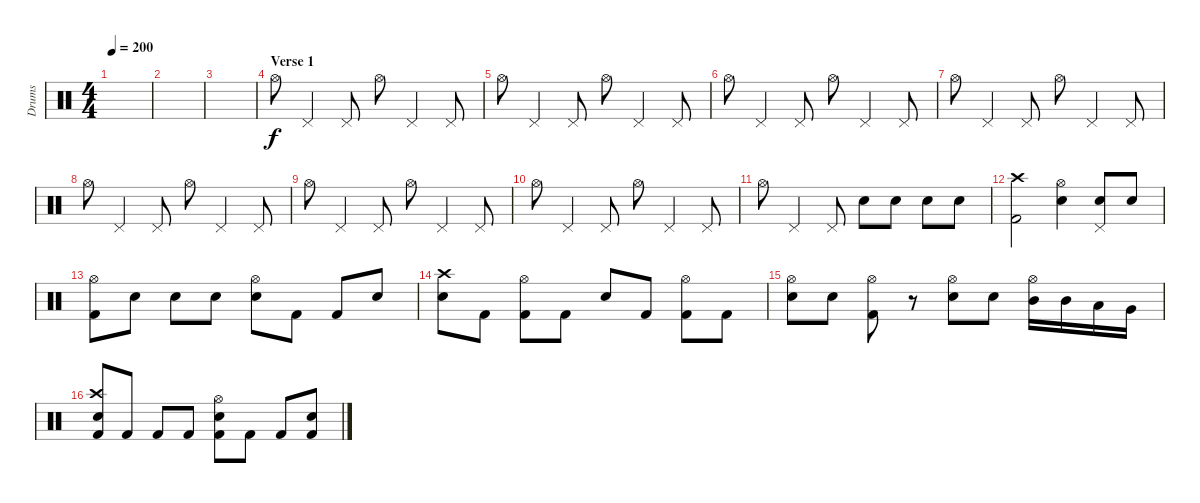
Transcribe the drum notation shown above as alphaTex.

\track ("Drums" "Drums") {instrument percussion}
\staff {score}
\articulation defaults
\ts (4 4)
\tempo 200
\clef neutral
\ks c
|
|
|
\section ("" "Verse 1")
"Hi-Hat (open)".8 "Pedal Hi-Hat (hit)".4 "Pedal Hi-Hat (hit)".8 "Hi-Hat (open)".8 "Pedal Hi-Hat (hit)".4 "Pedal Hi-Hat (hit)".8 |
"Hi-Hat (open)".8 "Pedal Hi-Hat (hit)".4 "Pedal Hi-Hat (hit)".8 "Hi-Hat (open)".8 "Pedal Hi-Hat (hit)".4 "Pedal Hi-Hat (hit)".8 |
"Hi-Hat (open)".8 "Pedal Hi-Hat (hit)".4 "Pedal Hi-Hat (hit)".8 "Hi-Hat (open)".8 "Pedal Hi-Hat (hit)".4 "Pedal Hi-Hat (hit)".8 |
"Hi-Hat (open)".8 "Pedal Hi-Hat (hit)".4 "Pedal Hi-Hat (hit)".8 "Hi-Hat (open)".8 "Pedal Hi-Hat (hit)".4 "Pedal Hi-Hat (hit)".8 |
"Hi-Hat (open)".8 "Pedal Hi-Hat (hit)".4 "Pedal Hi-Hat (hit)".8 "Hi-Hat (open)".8 "Pedal Hi-Hat (hit)".4 "Pedal Hi-Hat (hit)".8 |
"Hi-Hat (open)".8 "Pedal Hi-Hat (hit)".4 "Pedal Hi-Hat (hit)".8 "Hi-Hat (open)".8 "Pedal Hi-Hat (hit)".4 "Pedal Hi-Hat (hit)".8 |
"Hi-Hat (open)".8 "Pedal Hi-Hat (hit)".4 "Pedal Hi-Hat (hit)".8 "Hi-Hat (open)".8 "Pedal Hi-Hat (hit)".4 "Pedal Hi-Hat (hit)".8 |
"Hi-Hat (open)".8 "Pedal Hi-Hat (hit)".4 "Pedal Hi-Hat (hit)".8 "Electric Snare (hit)".8 "Electric Snare (hit)".8 "Electric Snare (hit)".8 "Electric Snare (hit)".8 |
("Crash high (hit)" "Kick (hit) 2").2 ("Hi-Hat (open)" "Electric Snare (hit)").4 ("Pedal Hi-Hat (hit)" "Electric Snare (hit)").8 "Electric Snare (hit)".8 |
("Hi-Hat (open)" "Kick (hit) 2").8 "Electric Snare (hit)".8 "Electric Snare (hit)".8 "Electric Snare (hit)".8 ("Hi-Hat (open)" "Electric Snare (hit)").8 "Kick (hit) 2".8 "Kick (hit) 2".8 "Electric Snare (hit)".8 |
("Crash high (hit)" "Electric Snare (hit)").8 "Kick (hit) 2".8 ("Hi-Hat (open)" "Kick (hit) 2").8 "Kick (hit) 2".8 "Electric Snare (hit)".8 "Kick (hit) 2".8 ("Hi-Hat (open)" "Kick (hit) 2").8 "Kick (hit) 2".8 |
("Hi-Hat (open)" "Electric Snare (hit)").8 "Electric Snare (hit)".8 ("Hi-Hat (open)" "Kick (hit) 2").8 r.8 ("Hi-Hat (open)" "Electric Snare (hit)").8 "Electric Snare (hit)".8 ("Hi-Hat (open)" "Mid Tom (hit)").16 "Mid Tom (hit)".16 "Low Tom (hit)".16 "Very Low Tom (hit)".16 |
("Crash high (hit)" "Electric Snare (hit)" "Kick (hit) 2").8 "Kick (hit) 2".8 "Kick (hit) 2".8 "Kick (hit) 2".8 ("Hi-Hat (open)" "Electric Snare (hit)" "Kick (hit) 2").8 "Kick (hit) 2".8 "Kick (hit) 2".8 ("Electric Snare (hit)" "Kick (hit) 2").8
